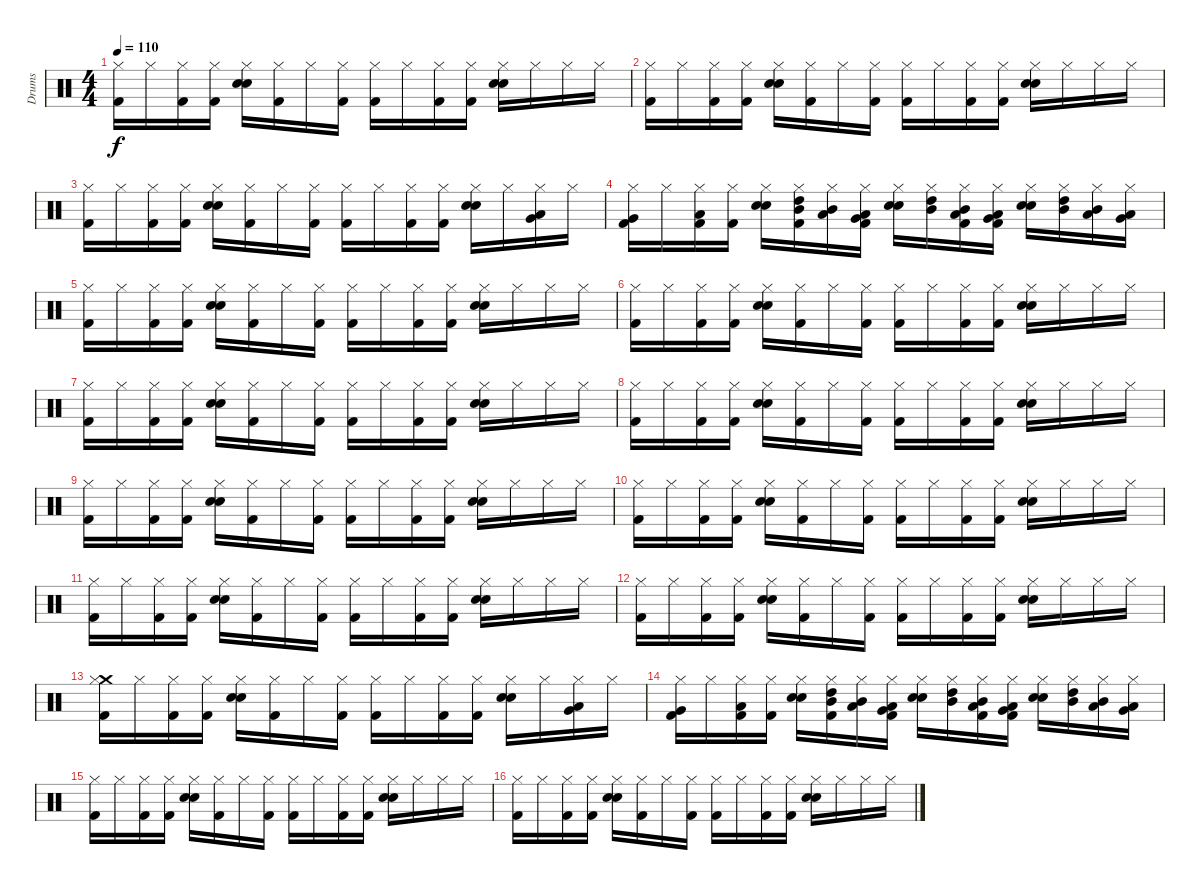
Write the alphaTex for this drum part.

\track ("Drums" "Drums") {instrument percussion}
\staff {score}
\articulation defaults
\ts (4 4)
\tempo 110
\clef neutral
\ks c
("Kick (hit) 2" "Hi-Hat (closed)").16{dy f} "Hi-Hat (closed)".16 ("Kick (hit) 2" "Hi-Hat (closed)").16 ("Kick (hit) 2" "Hi-Hat (closed)").16 ("Electric Snare (hit)" "Snare (hit) 2" "Hi-Hat (closed)").16 ("Kick (hit) 2" "Hi-Hat (closed)").16 "Hi-Hat (closed)".16 ("Kick (hit) 2" "Hi-Hat (closed)").16 ("Kick (hit) 2" "Hi-Hat (closed)").16 "Hi-Hat (closed)".16 ("Kick (hit) 2" "Hi-Hat (closed)").16 ("Kick (hit) 2" "Hi-Hat (closed)").16 ("Electric Snare (hit)" "Snare (hit) 2" "Hi-Hat (closed)").16 "Hi-Hat (closed)".16 "Hi-Hat (closed)".16 "Hi-Hat (closed)".16 |
("Kick (hit) 2" "Hi-Hat (closed)").16 "Hi-Hat (closed)".16 ("Kick (hit) 2" "Hi-Hat (closed)").16 ("Kick (hit) 2" "Hi-Hat (closed)").16 ("Electric Snare (hit)" "Snare (hit) 2" "Hi-Hat (closed)").16 ("Kick (hit) 2" "Hi-Hat (closed)").16 "Hi-Hat (closed)".16 ("Kick (hit) 2" "Hi-Hat (closed)").16 ("Kick (hit) 2" "Hi-Hat (closed)").16 "Hi-Hat (closed)".16 ("Kick (hit) 2" "Hi-Hat (closed)").16 ("Kick (hit) 2" "Hi-Hat (closed)").16 ("Electric Snare (hit)" "Snare (hit) 2" "Hi-Hat (closed)").16 "Hi-Hat (closed)".16 "Hi-Hat (closed)".16 "Hi-Hat (closed)".16 |
("Kick (hit) 2" "Hi-Hat (closed)").16 "Hi-Hat (closed)".16 ("Kick (hit) 2" "Hi-Hat (closed)").16 ("Kick (hit) 2" "Hi-Hat (closed)").16 ("Electric Snare (hit)" "Snare (hit) 2" "Hi-Hat (closed)").16 ("Kick (hit) 2" "Hi-Hat (closed)").16 "Hi-Hat (closed)".16 ("Kick (hit) 2" "Hi-Hat (closed)").16 ("Kick (hit) 2" "Hi-Hat (closed)").16 "Hi-Hat (closed)".16 ("Kick (hit) 2" "Hi-Hat (closed)").16 ("Kick (hit) 2" "Hi-Hat (closed)").16 ("Electric Snare (hit)" "Snare (hit) 2" "Hi-Hat (closed)").16 "Hi-Hat (closed)".16 ("Low Tom (hit)" "Very Low Tom (hit)" "Hi-Hat (closed)").16 "Hi-Hat (closed)".16 |
("Very Low Tom (hit)" "Kick (hit) 2" "Hi-Hat (closed)").16 "Hi-Hat (closed)".16 ("Low Floor Tom (hit)" "Kick (hit) 2" "Hi-Hat (closed)").16 ("Kick (hit) 2" "Hi-Hat (closed)").16 ("Electric Snare (hit)" "Snare (hit) 2" "Hi-Hat (closed)").16 ("Mid Tom (hit)" "High Tom (hit)" "Kick (hit) 2" "Hi-Hat (closed)").16 ("Low Tom (hit)" "Mid Tom (hit)" "Hi-Hat (closed)").16 ("Low Floor Tom (hit)" "Very Low Tom (hit)" "Kick (hit) 2" "Hi-Hat (closed)").16 ("Electric Snare (hit)" "Snare (hit) 2" "Hi-Hat (closed)").16 ("Mid Tom (hit)" "High Tom (hit)" "Hi-Hat (closed)").16 ("Low Tom (hit)" "Mid Tom (hit)" "Kick (hit) 2" "Hi-Hat (closed)").16 ("Very Low Tom (hit)" "Low Tom (hit)" "Kick (hit) 2" "Hi-Hat (closed)").16 ("Electric Snare (hit)" "Snare (hit) 2" "Hi-Hat (closed)").16 ("Mid Tom (hit)" "High Tom (hit)" "Hi-Hat (closed)").16 ("Low Tom (hit)" "Mid Tom (hit)" "Hi-Hat (closed)").16 ("Very Low Tom (hit)" "Low Tom (hit)" "Hi-Hat (closed)").16 |
("Kick (hit) 2" "Hi-Hat (closed)").16 "Hi-Hat (closed)".16 ("Kick (hit) 2" "Hi-Hat (closed)").16 ("Kick (hit) 2" "Hi-Hat (closed)").16 ("Electric Snare (hit)" "Snare (hit) 2" "Hi-Hat (closed)").16 ("Kick (hit) 2" "Hi-Hat (closed)").16 "Hi-Hat (closed)".16 ("Kick (hit) 2" "Hi-Hat (closed)").16 ("Kick (hit) 2" "Hi-Hat (closed)").16 "Hi-Hat (closed)".16 ("Kick (hit) 2" "Hi-Hat (closed)").16 ("Kick (hit) 2" "Hi-Hat (closed)").16 ("Electric Snare (hit)" "Snare (hit) 2" "Hi-Hat (closed)").16 "Hi-Hat (closed)".16 "Hi-Hat (closed)".16 "Hi-Hat (closed)".16 |
("Kick (hit) 2" "Hi-Hat (closed)").16 "Hi-Hat (closed)".16 ("Kick (hit) 2" "Hi-Hat (closed)").16 ("Kick (hit) 2" "Hi-Hat (closed)").16 ("Electric Snare (hit)" "Snare (hit) 2" "Hi-Hat (closed)").16 ("Kick (hit) 2" "Hi-Hat (closed)").16 "Hi-Hat (closed)".16 ("Kick (hit) 2" "Hi-Hat (closed)").16 ("Kick (hit) 2" "Hi-Hat (closed)").16 "Hi-Hat (closed)".16 ("Kick (hit) 2" "Hi-Hat (closed)").16 ("Kick (hit) 2" "Hi-Hat (closed)").16 ("Electric Snare (hit)" "Snare (hit) 2" "Hi-Hat (closed)").16 "Hi-Hat (closed)".16 "Hi-Hat (closed)".16 "Hi-Hat (closed)".16 |
("Kick (hit) 2" "Hi-Hat (closed)").16 "Hi-Hat (closed)".16 ("Kick (hit) 2" "Hi-Hat (closed)").16 ("Kick (hit) 2" "Hi-Hat (closed)").16 ("Electric Snare (hit)" "Snare (hit) 2" "Hi-Hat (closed)").16 ("Kick (hit) 2" "Hi-Hat (closed)").16 "Hi-Hat (closed)".16 ("Kick (hit) 2" "Hi-Hat (closed)").16 ("Kick (hit) 2" "Hi-Hat (closed)").16 "Hi-Hat (closed)".16 ("Kick (hit) 2" "Hi-Hat (closed)").16 ("Kick (hit) 2" "Hi-Hat (closed)").16 ("Electric Snare (hit)" "Snare (hit) 2" "Hi-Hat (closed)").16 "Hi-Hat (closed)".16 "Hi-Hat (closed)".16 "Hi-Hat (closed)".16 |
("Kick (hit) 2" "Hi-Hat (closed)").16 "Hi-Hat (closed)".16 ("Kick (hit) 2" "Hi-Hat (closed)").16 ("Kick (hit) 2" "Hi-Hat (closed)").16 ("Electric Snare (hit)" "Snare (hit) 2" "Hi-Hat (closed)").16 ("Kick (hit) 2" "Hi-Hat (closed)").16 "Hi-Hat (closed)".16 ("Kick (hit) 2" "Hi-Hat (closed)").16 ("Kick (hit) 2" "Hi-Hat (closed)").16 "Hi-Hat (closed)".16 ("Kick (hit) 2" "Hi-Hat (closed)").16 ("Kick (hit) 2" "Hi-Hat (closed)").16 ("Electric Snare (hit)" "Snare (hit) 2" "Hi-Hat (closed)").16 "Hi-Hat (closed)".16 "Hi-Hat (closed)".16 "Hi-Hat (closed)".16 |
("Kick (hit) 2" "Hi-Hat (closed)").16 "Hi-Hat (closed)".16 ("Kick (hit) 2" "Hi-Hat (closed)").16 ("Kick (hit) 2" "Hi-Hat (closed)").16 ("Electric Snare (hit)" "Snare (hit) 2" "Hi-Hat (closed)").16 ("Kick (hit) 2" "Hi-Hat (closed)").16 "Hi-Hat (closed)".16 ("Kick (hit) 2" "Hi-Hat (closed)").16 ("Kick (hit) 2" "Hi-Hat (closed)").16 "Hi-Hat (closed)".16 ("Kick (hit) 2" "Hi-Hat (closed)").16 ("Kick (hit) 2" "Hi-Hat (closed)").16 ("Electric Snare (hit)" "Snare (hit) 2" "Hi-Hat (closed)").16 "Hi-Hat (closed)".16 "Hi-Hat (closed)".16 "Hi-Hat (closed)".16 |
("Kick (hit) 2" "Hi-Hat (closed)").16 "Hi-Hat (closed)".16 ("Kick (hit) 2" "Hi-Hat (closed)").16 ("Kick (hit) 2" "Hi-Hat (closed)").16 ("Electric Snare (hit)" "Snare (hit) 2" "Hi-Hat (closed)").16 ("Kick (hit) 2" "Hi-Hat (closed)").16 "Hi-Hat (closed)".16 ("Kick (hit) 2" "Hi-Hat (closed)").16 ("Kick (hit) 2" "Hi-Hat (closed)").16 "Hi-Hat (closed)".16 ("Kick (hit) 2" "Hi-Hat (closed)").16 ("Kick (hit) 2" "Hi-Hat (closed)").16 ("Electric Snare (hit)" "Snare (hit) 2" "Hi-Hat (closed)").16 "Hi-Hat (closed)".16 "Hi-Hat (closed)".16 "Hi-Hat (closed)".16 |
("Kick (hit) 2" "Hi-Hat (closed)").16 "Hi-Hat (closed)".16 ("Kick (hit) 2" "Hi-Hat (closed)").16 ("Kick (hit) 2" "Hi-Hat (closed)").16 ("Electric Snare (hit)" "Snare (hit) 2" "Hi-Hat (closed)").16 ("Kick (hit) 2" "Hi-Hat (closed)").16 "Hi-Hat (closed)".16 ("Kick (hit) 2" "Hi-Hat (closed)").16 ("Kick (hit) 2" "Hi-Hat (closed)").16 "Hi-Hat (closed)".16 ("Kick (hit) 2" "Hi-Hat (closed)").16 ("Kick (hit) 2" "Hi-Hat (closed)").16 ("Electric Snare (hit)" "Snare (hit) 2" "Hi-Hat (closed)").16 "Hi-Hat (closed)".16 "Hi-Hat (closed)".16 "Hi-Hat (closed)".16 |
("Kick (hit) 2" "Hi-Hat (closed)").16 "Hi-Hat (closed)".16 ("Kick (hit) 2" "Hi-Hat (closed)").16 ("Kick (hit) 2" "Hi-Hat (closed)").16 ("Electric Snare (hit)" "Snare (hit) 2" "Hi-Hat (closed)").16 ("Kick (hit) 2" "Hi-Hat (closed)").16 "Hi-Hat (closed)".16 ("Kick (hit) 2" "Hi-Hat (closed)").16 ("Kick (hit) 2" "Hi-Hat (closed)").16 "Hi-Hat (closed)".16 ("Kick (hit) 2" "Hi-Hat (closed)").16 ("Kick (hit) 2" "Hi-Hat (closed)").16 ("Electric Snare (hit)" "Snare (hit) 2" "Hi-Hat (closed)").16 "Hi-Hat (closed)".16 "Hi-Hat (closed)".16 "Hi-Hat (closed)".16 |
("Crash medium (hit)" "Kick (hit) 2" "Hi-Hat (closed)").16 "Hi-Hat (closed)".16 ("Kick (hit) 2" "Hi-Hat (closed)").16 ("Kick (hit) 2" "Hi-Hat (closed)").16 ("Electric Snare (hit)" "Snare (hit) 2" "Hi-Hat (closed)").16 ("Kick (hit) 2" "Hi-Hat (closed)").16 "Hi-Hat (closed)".16 ("Kick (hit) 2" "Hi-Hat (closed)").16 ("Kick (hit) 2" "Hi-Hat (closed)").16 "Hi-Hat (closed)".16 ("Kick (hit) 2" "Hi-Hat (closed)").16 ("Kick (hit) 2" "Hi-Hat (closed)").16 ("Electric Snare (hit)" "Snare (hit) 2" "Hi-Hat (closed)").16 "Hi-Hat (closed)".16 ("Low Tom (hit)" "Very Low Tom (hit)" "Hi-Hat (closed)").16 "Hi-Hat (closed)".16 |
("Very Low Tom (hit)" "Kick (hit) 2" "Hi-Hat (closed)").16 "Hi-Hat (closed)".16 ("Low Floor Tom (hit)" "Kick (hit) 2" "Hi-Hat (closed)").16 ("Kick (hit) 2" "Hi-Hat (closed)").16 ("Electric Snare (hit)" "Snare (hit) 2" "Hi-Hat (closed)").16 ("Mid Tom (hit)" "High Tom (hit)" "Kick (hit) 2" "Hi-Hat (closed)").16 ("Low Tom (hit)" "Mid Tom (hit)" "Hi-Hat (closed)").16 ("Low Floor Tom (hit)" "Very Low Tom (hit)" "Kick (hit) 2" "Hi-Hat (closed)").16 ("Electric Snare (hit)" "Snare (hit) 2" "Hi-Hat (closed)").16 ("Mid Tom (hit)" "High Tom (hit)" "Hi-Hat (closed)").16 ("Low Tom (hit)" "Mid Tom (hit)" "Kick (hit) 2" "Hi-Hat (closed)").16 ("Very Low Tom (hit)" "Low Tom (hit)" "Kick (hit) 2" "Hi-Hat (closed)").16 ("Electric Snare (hit)" "Snare (hit) 2" "Hi-Hat (closed)").16 ("Mid Tom (hit)" "High Tom (hit)" "Hi-Hat (closed)").16 ("Low Tom (hit)" "Mid Tom (hit)" "Hi-Hat (closed)").16 ("Very Low Tom (hit)" "Low Tom (hit)" "Hi-Hat (closed)").16 |
("Kick (hit) 2" "Hi-Hat (closed)").16 "Hi-Hat (closed)".16 ("Kick (hit) 2" "Hi-Hat (closed)").16 ("Kick (hit) 2" "Hi-Hat (closed)").16 ("Electric Snare (hit)" "Snare (hit) 2" "Hi-Hat (closed)").16 ("Kick (hit) 2" "Hi-Hat (closed)").16 "Hi-Hat (closed)".16 ("Kick (hit) 2" "Hi-Hat (closed)").16 ("Kick (hit) 2" "Hi-Hat (closed)").16 "Hi-Hat (closed)".16 ("Kick (hit) 2" "Hi-Hat (closed)").16 ("Kick (hit) 2" "Hi-Hat (closed)").16 ("Electric Snare (hit)" "Snare (hit) 2" "Hi-Hat (closed)").16 "Hi-Hat (closed)".16 "Hi-Hat (closed)".16 "Hi-Hat (closed)".16 |
("Hi-Hat (closed)" "Kick (hit) 2").16 "Hi-Hat (closed)".16 ("Hi-Hat (closed)" "Kick (hit) 2").16 ("Hi-Hat (closed)" "Kick (hit) 2").16 ("Hi-Hat (closed)" "Electric Snare (hit)" "Snare (hit) 2").16 ("Hi-Hat (closed)" "Kick (hit) 2").16 "Hi-Hat (closed)".16 ("Hi-Hat (closed)" "Kick (hit) 2").16 ("Hi-Hat (closed)" "Kick (hit) 2").16 "Hi-Hat (closed)".16 ("Hi-Hat (closed)" "Kick (hit) 2").16 ("Hi-Hat (closed)" "Kick (hit) 2").16 ("Hi-Hat (closed)" "Electric Snare (hit)" "Snare (hit) 2").16 "Hi-Hat (closed)".16 "Hi-Hat (closed)".16 "Hi-Hat (closed)".16
